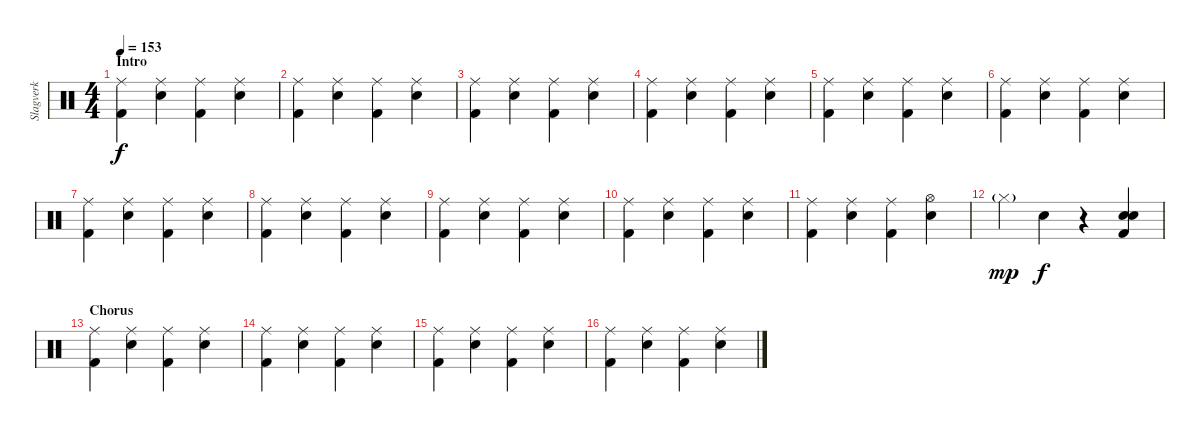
\track ("Slagverk" "Slagverk") {instrument percussion}
\staff {score}
\articulation defaults
\ts (4 4)
\section ("" "Intro")
\tempo 153
\clef neutral
\ks c
("Ride (middle)" "Kick (hit) 2").4{dy f} ("Ride (middle)" "Electric Snare (hit)").4 ("Ride (middle)" "Kick (hit) 2").4 ("Ride (middle)" "Electric Snare (hit)").4 |
("Ride (middle)" "Kick (hit) 2").4 ("Ride (middle)" "Electric Snare (hit)").4 ("Ride (middle)" "Kick (hit) 2").4 ("Ride (middle)" "Electric Snare (hit)").4 |
("Ride (middle)" "Kick (hit) 2").4 ("Ride (middle)" "Electric Snare (hit)").4 ("Ride (middle)" "Kick (hit) 2").4 ("Ride (middle)" "Electric Snare (hit)").4 |
("Ride (middle)" "Kick (hit) 2").4 ("Ride (middle)" "Electric Snare (hit)").4 ("Ride (middle)" "Kick (hit) 2").4 ("Ride (middle)" "Electric Snare (hit)").4 |
("Ride (middle)" "Kick (hit) 2").4 ("Ride (middle)" "Electric Snare (hit)").4 ("Ride (middle)" "Kick (hit) 2").4 ("Ride (middle)" "Electric Snare (hit)").4 |
("Ride (middle)" "Kick (hit) 2").4 ("Ride (middle)" "Electric Snare (hit)").4 ("Ride (middle)" "Kick (hit) 2").4 ("Ride (middle)" "Electric Snare (hit)").4 |
("Ride (middle)" "Kick (hit) 2").4 ("Ride (middle)" "Electric Snare (hit)").4 ("Ride (middle)" "Kick (hit) 2").4 ("Ride (middle)" "Electric Snare (hit)").4 |
("Ride (middle)" "Kick (hit) 2").4 ("Ride (middle)" "Electric Snare (hit)").4 ("Ride (middle)" "Kick (hit) 2").4 ("Ride (middle)" "Electric Snare (hit)").4 |
("Ride (middle)" "Kick (hit) 2").4 ("Ride (middle)" "Electric Snare (hit)").4 ("Ride (middle)" "Kick (hit) 2").4 ("Ride (middle)" "Electric Snare (hit)").4 |
("Ride (middle)" "Kick (hit) 2").4 ("Ride (middle)" "Electric Snare (hit)").4 ("Ride (middle)" "Kick (hit) 2").4 ("Ride (middle)" "Electric Snare (hit)").4 |
("Ride (middle)" "Kick (hit) 2").4 ("Ride (middle)" "Electric Snare (hit)").4 ("Ride (middle)" "Kick (hit) 2").4 ("Hi-Hat (open)" "Electric Snare (hit)").4 |
"Hi-Hat (closed)"{g}.4{dy mp} "Hand Clap (hit)".4{dy f} r.4 ("Hand Clap (hit)" "Electric Snare (hit)" "Kick (hit) 2").4 |
\section ("" "Chorus")
("Ride (middle)" "Kick (hit) 2").4 ("Ride (middle)" "Electric Snare (hit)").4 ("Ride (middle)" "Kick (hit) 2").4 ("Ride (middle)" "Electric Snare (hit)").4 |
("Ride (middle)" "Kick (hit) 2").4 ("Ride (middle)" "Electric Snare (hit)").4 ("Ride (middle)" "Kick (hit) 2").4 ("Ride (middle)" "Electric Snare (hit)").4 |
("Ride (middle)" "Kick (hit) 2").4 ("Ride (middle)" "Electric Snare (hit)").4 ("Ride (middle)" "Kick (hit) 2").4 ("Ride (middle)" "Electric Snare (hit)").4 |
("Ride (middle)" "Kick (hit) 2").4 ("Ride (middle)" "Electric Snare (hit)").4 ("Ride (middle)" "Kick (hit) 2").4 ("Ride (middle)" "Electric Snare (hit)").4
